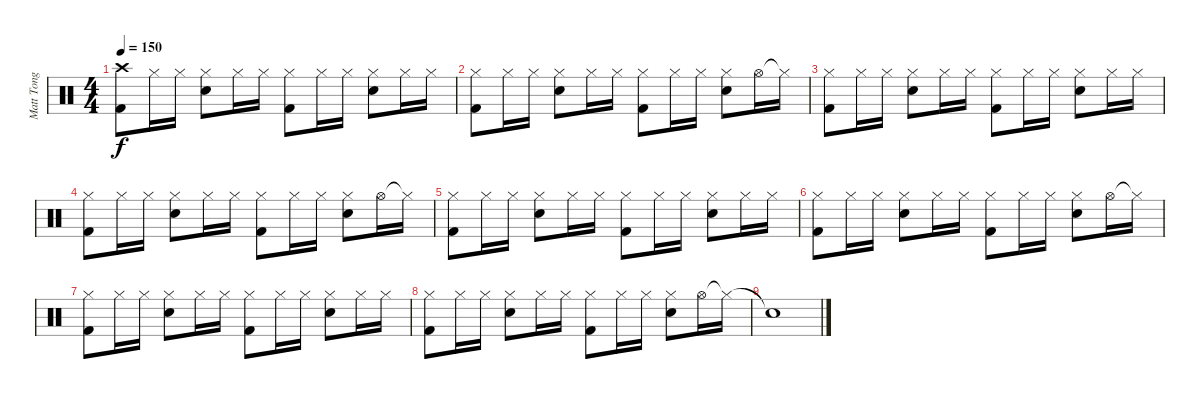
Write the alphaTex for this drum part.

\track ("Matt Tong" "Matt Tong") {instrument percussion}
\staff {score}
\articulation defaults
\ts (4 4)
\tempo 150
\clef neutral
\ks c
("Crash high (hit)" "Kick (hit) 2").8{dy f} "Hi-Hat (closed)".16 "Hi-Hat (closed)".16 ("Hi-Hat (closed)" "Electric Snare (hit)").8 "Hi-Hat (closed)".16 "Hi-Hat (closed)".16 ("Hi-Hat (closed)" "Kick (hit) 2").8 "Hi-Hat (closed)".16 "Hi-Hat (closed)".16 ("Hi-Hat (closed)" "Electric Snare (hit)").8 "Hi-Hat (closed)".16 "Hi-Hat (closed)".16 |
("Hi-Hat (closed)" "Kick (hit) 2").8 "Hi-Hat (closed)".16 "Hi-Hat (closed)".16 ("Hi-Hat (closed)" "Electric Snare (hit)").8 "Hi-Hat (closed)".16 "Hi-Hat (closed)".16 ("Hi-Hat (closed)" "Kick (hit) 2").8 "Hi-Hat (closed)".16 "Hi-Hat (closed)".16 ("Hi-Hat (closed)" "Electric Snare (hit)").8 "Hi-Hat (open)".16 "Hi-Hat (closed)"{t}.16 |
("Hi-Hat (closed)" "Kick (hit) 2").8 "Hi-Hat (closed)".16 "Hi-Hat (closed)".16 ("Hi-Hat (closed)" "Electric Snare (hit)").8 "Hi-Hat (closed)".16 "Hi-Hat (closed)".16 ("Hi-Hat (closed)" "Kick (hit) 2").8 "Hi-Hat (closed)".16 "Hi-Hat (closed)".16 ("Hi-Hat (closed)" "Electric Snare (hit)").8 "Hi-Hat (closed)".16 "Hi-Hat (closed)".16 |
("Hi-Hat (closed)" "Kick (hit) 2").8 "Hi-Hat (closed)".16 "Hi-Hat (closed)".16 ("Hi-Hat (closed)" "Electric Snare (hit)").8 "Hi-Hat (closed)".16 "Hi-Hat (closed)".16 ("Hi-Hat (closed)" "Kick (hit) 2").8 "Hi-Hat (closed)".16 "Hi-Hat (closed)".16 ("Hi-Hat (closed)" "Electric Snare (hit)").8 "Hi-Hat (open)".16 "Hi-Hat (closed)"{t}.16 |
("Hi-Hat (closed)" "Kick (hit) 2").8 "Hi-Hat (closed)".16 "Hi-Hat (closed)".16 ("Hi-Hat (closed)" "Electric Snare (hit)").8 "Hi-Hat (closed)".16 "Hi-Hat (closed)".16 ("Hi-Hat (closed)" "Kick (hit) 2").8 "Hi-Hat (closed)".16 "Hi-Hat (closed)".16 ("Hi-Hat (closed)" "Electric Snare (hit)").8 "Hi-Hat (closed)".16 "Hi-Hat (closed)".16 |
("Hi-Hat (closed)" "Kick (hit) 2").8 "Hi-Hat (closed)".16 "Hi-Hat (closed)".16 ("Hi-Hat (closed)" "Electric Snare (hit)").8 "Hi-Hat (closed)".16 "Hi-Hat (closed)".16 ("Hi-Hat (closed)" "Kick (hit) 2").8 "Hi-Hat (closed)".16 "Hi-Hat (closed)".16 ("Hi-Hat (closed)" "Electric Snare (hit)").8 "Hi-Hat (open)".16 "Hi-Hat (closed)"{t}.16 |
("Hi-Hat (closed)" "Kick (hit) 2").8 "Hi-Hat (closed)".16 "Hi-Hat (closed)".16 ("Hi-Hat (closed)" "Electric Snare (hit)").8 "Hi-Hat (closed)".16 "Hi-Hat (closed)".16 ("Hi-Hat (closed)" "Kick (hit) 2").8 "Hi-Hat (closed)".16 "Hi-Hat (closed)".16 ("Hi-Hat (closed)" "Electric Snare (hit)").8 "Hi-Hat (closed)".16 "Hi-Hat (closed)".16 |
("Hi-Hat (closed)" "Kick (hit) 2").8 "Hi-Hat (closed)".16 "Hi-Hat (closed)".16 ("Hi-Hat (closed)" "Electric Snare (hit)").8 "Hi-Hat (closed)".16 "Hi-Hat (closed)".16 ("Hi-Hat (closed)" "Kick (hit) 2").8 "Hi-Hat (closed)".16 "Hi-Hat (closed)".16 ("Hi-Hat (closed)" "Electric Snare (hit)").8 "Hi-Hat (open)".16 "Hi-Hat (closed)"{t}.16 |
"Snare (hit)"{t}.1
